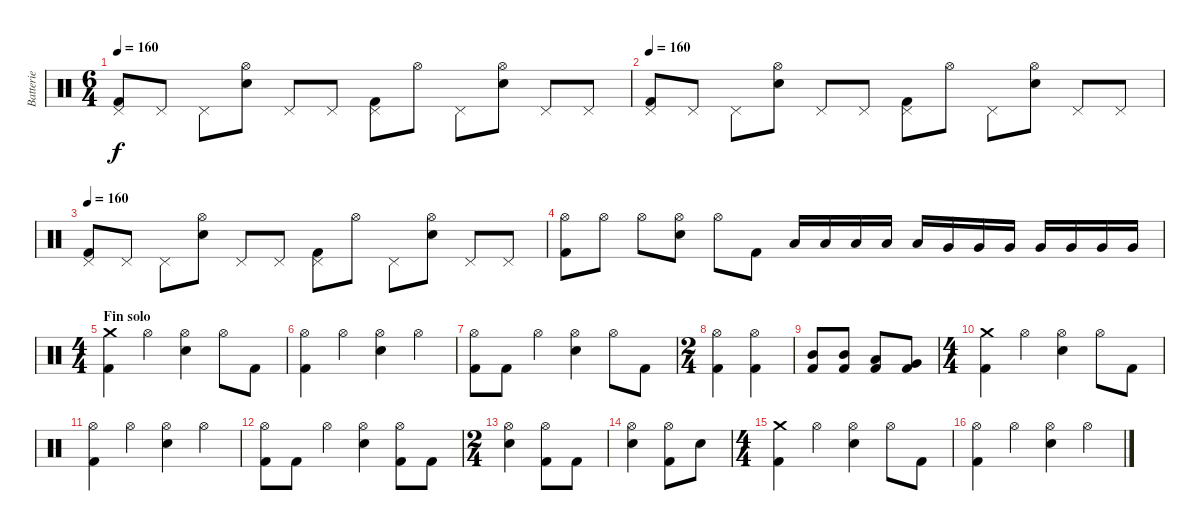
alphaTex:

\track ("Batterie" "Batterie") {instrument percussion}
\staff {score}
\articulation defaults
\ts (6 4)
\tempo 160
\clef neutral
\ks c
("Pedal Hi-Hat (hit)" "Kick (hit) 2").8{dy f} "Pedal Hi-Hat (hit)".8 "Pedal Hi-Hat (hit)".8 ("Hi-Hat (open)" "Electric Snare (hit)").8 "Pedal Hi-Hat (hit)".8 "Pedal Hi-Hat (hit)".8 ("Pedal Hi-Hat (hit)" "Kick (hit) 2").8 "Hi-Hat (open)".8 "Pedal Hi-Hat (hit)".8 ("Hi-Hat (open)" "Electric Snare (hit)").8 "Pedal Hi-Hat (hit)".8 "Pedal Hi-Hat (hit)".8 |
\tempo 160
("Pedal Hi-Hat (hit)" "Kick (hit) 2").8 "Pedal Hi-Hat (hit)".8 "Pedal Hi-Hat (hit)".8 ("Hi-Hat (open)" "Electric Snare (hit)").8 "Pedal Hi-Hat (hit)".8 "Pedal Hi-Hat (hit)".8 ("Pedal Hi-Hat (hit)" "Kick (hit) 2").8 "Hi-Hat (open)".8 "Pedal Hi-Hat (hit)".8 ("Hi-Hat (open)" "Electric Snare (hit)").8 "Pedal Hi-Hat (hit)".8 "Pedal Hi-Hat (hit)".8 |
\tempo 160
("Pedal Hi-Hat (hit)" "Kick (hit) 2").8 "Pedal Hi-Hat (hit)".8 "Pedal Hi-Hat (hit)".8 ("Hi-Hat (open)" "Electric Snare (hit)").8 "Pedal Hi-Hat (hit)".8 "Pedal Hi-Hat (hit)".8 ("Pedal Hi-Hat (hit)" "Kick (hit) 2").8 "Hi-Hat (open)".8 "Pedal Hi-Hat (hit)".8 ("Hi-Hat (open)" "Electric Snare (hit)").8 "Pedal Hi-Hat (hit)".8 "Pedal Hi-Hat (hit)".8 |
("Hi-Hat (open)" "Kick (hit) 2").8 "Hi-Hat (open)".8 "Hi-Hat (open)".8 ("Hi-Hat (open)" "Electric Snare (hit)").8 "Hi-Hat (open)".8 "Kick (hit) 2".8 "Low Tom (hit)".16 "Low Tom (hit)".16 "Low Tom (hit)".16 "Low Tom (hit)".16 "Low Tom (hit)".16 "Very Low Tom (hit)".16 "Very Low Tom (hit)".16 "Very Low Tom (hit)".16 "Very Low Tom (hit)".16 "Very Low Tom (hit)".16 "Very Low Tom (hit)".16 "Very Low Tom (hit)".16 |
\ts (4 4)
\section ("" "Fin solo")
("Crash medium (hit)" "Kick (hit) 2").4 "Hi-Hat (open)".4 ("Hi-Hat (open)" "Electric Snare (hit)").4 "Hi-Hat (open)".8 "Kick (hit) 2".8 |
("Hi-Hat (open)" "Kick (hit) 2").4 "Hi-Hat (open)".4 ("Hi-Hat (open)" "Electric Snare (hit)").4 "Hi-Hat (open)".4 |
("Hi-Hat (open)" "Kick (hit) 2").8 "Kick (hit) 2".8 "Hi-Hat (open)".4 ("Hi-Hat (open)" "Electric Snare (hit)").4 "Hi-Hat (open)".8 "Kick (hit) 2".8 |
\ts (2 4)
("Hi-Hat (open)" "Kick (hit) 2").4 ("Hi-Hat (open)" "Kick (hit) 2").4 |
("Mid Tom (hit)" "Kick (hit) 2").8 ("Mid Tom (hit)" "Kick (hit) 2").8 ("Low Tom (hit)" "Kick (hit) 2").8 ("Very Low Tom (hit)" "Kick (hit) 2").8 |
\ts (4 4)
("Crash medium (hit)" "Kick (hit) 2").4 "Hi-Hat (open)".4 ("Hi-Hat (open)" "Electric Snare (hit)").4 "Hi-Hat (open)".8 "Kick (hit) 2".8 |
("Hi-Hat (open)" "Kick (hit) 2").4 "Hi-Hat (open)".4 ("Hi-Hat (open)" "Electric Snare (hit)").4 "Hi-Hat (open)".4 |
("Hi-Hat (open)" "Kick (hit) 2").8 "Kick (hit) 2".8 "Hi-Hat (open)".4 ("Hi-Hat (open)" "Electric Snare (hit)").4 ("Hi-Hat (open)" "Kick (hit) 2").8 "Kick (hit) 2".8 |
\ts (2 4)
("Hi-Hat (open)" "Electric Snare (hit)").4 ("Hi-Hat (open)" "Kick (hit) 2").8 "Kick (hit) 2".8 |
("Hi-Hat (open)" "Electric Snare (hit)").4 ("Hi-Hat (open)" "Kick (hit) 2").8 "Electric Snare (hit)".8 |
\ts (4 4)
("Crash medium (hit)" "Kick (hit) 2").4 "Hi-Hat (open)".4 ("Hi-Hat (open)" "Electric Snare (hit)").4 "Hi-Hat (open)".8 "Kick (hit) 2".8 |
("Hi-Hat (open)" "Kick (hit) 2").4 "Hi-Hat (open)".4 ("Hi-Hat (open)" "Electric Snare (hit)").4 "Hi-Hat (open)".4
